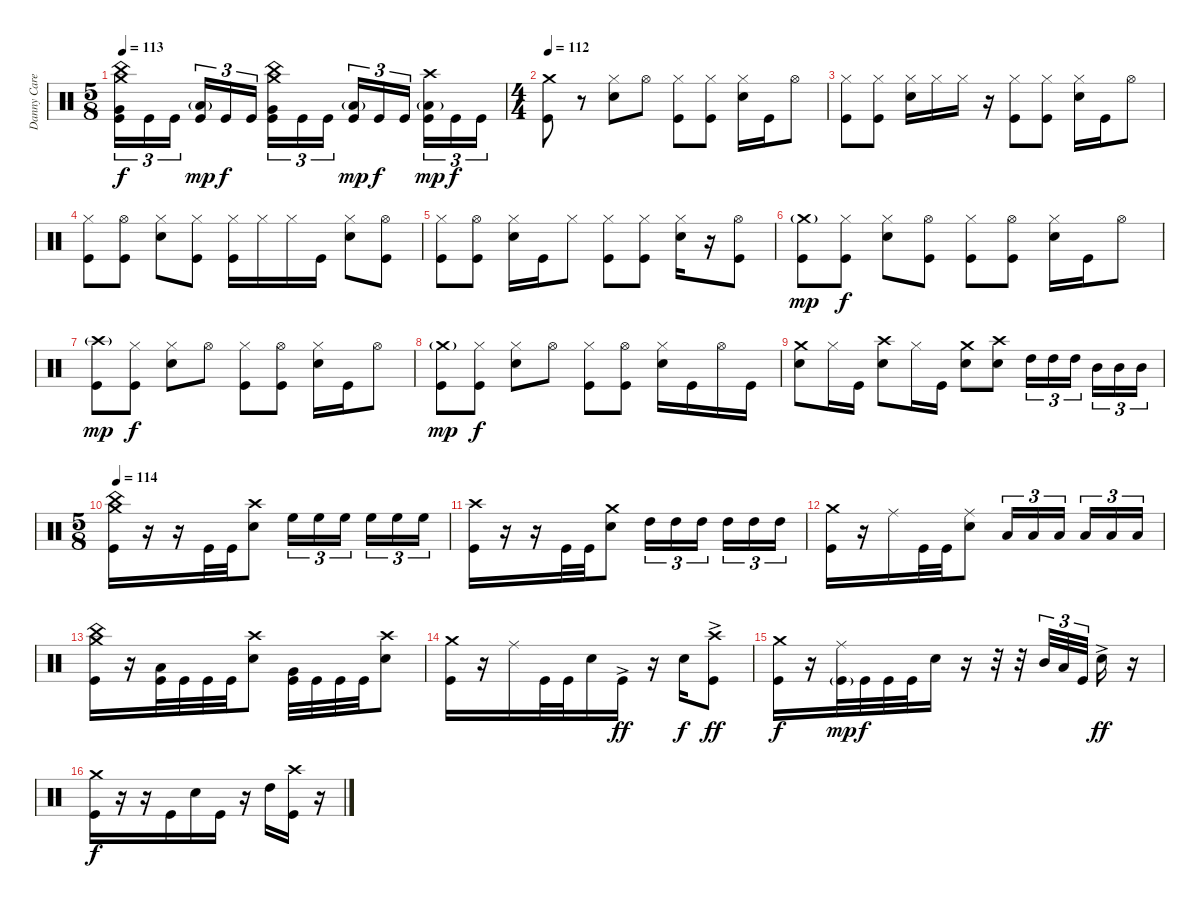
\track ("Danny Carey (drum)" "Danny Care") {instrument percussion}
\staff {score}
\articulation defaults
\ts (5 8)
\tempo 113
\clef neutral
\ks c
("Crash medium (hit)" "China (hit)" "Very Low Tom (hit)" "Kick (hit)").16{tu (3 2) dy f} "Kick (hit)".16{tu (3 2)} "Kick (hit)".16{tu (3 2)} ("Low Floor Tom (hit)"{g} "Kick (hit)").16{tu (3 2) dy mp} "Kick (hit)".16{tu (3 2) dy f} "Kick (hit)".16{tu (3 2)} ("Crash medium (hit)" "China (hit)" "Very Low Tom (hit)" "Kick (hit)").16{tu (3 2)} "Kick (hit)".16{tu (3 2)} "Kick (hit)".16{tu (3 2)} ("Low Floor Tom (hit)"{g} "Kick (hit)").16{tu (3 2) dy mp} "Kick (hit)".16{tu (3 2) dy f} "Kick (hit)".16{tu (3 2)} ("Crash high (hit)" "Low Floor Tom (hit)"{g} "Kick (hit)").16{tu (3 2) dy mp} "Kick (hit)".16{tu (3 2) dy f} "Kick (hit)".16{tu (3 2)} |
\ts (4 4)
\tempo 112
("Crash medium (hit)" "Kick (hit)").8 r.8 ("Hi-Hat (closed)" "Snare (hit) 2").8 "Hi-Hat (open)".8 ("Hi-Hat (closed)" "Kick (hit)").8 ("Hi-Hat (closed)" "Kick (hit)").8 ("Hi-Hat (closed)" "Snare (hit) 2").16 "Kick (hit)".16 "Hi-Hat (open)".8 |
("Hi-Hat (closed)" "Kick (hit)").8 ("Hi-Hat (closed)" "Kick (hit)").8 ("Hi-Hat (closed)" "Snare (hit) 2").16 "Hi-Hat (closed)".16 "Hi-Hat (closed)".16 r.16 ("Hi-Hat (closed)" "Kick (hit)").8 ("Hi-Hat (closed)" "Kick (hit)").8 ("Hi-Hat (closed)" "Snare (hit) 2").16 "Kick (hit)".16 "Hi-Hat (open)".8 |
("Hi-Hat (closed)" "Kick (hit)").8 ("Hi-Hat (open)" "Kick (hit)").8 ("Hi-Hat (closed)" "Snare (hit) 2").8 ("Hi-Hat (closed)" "Kick (hit)").8 ("Hi-Hat (closed)" "Kick (hit)").16 "Hi-Hat (closed)".16 "Hi-Hat (closed)".16 "Kick (hit)".16 ("Hi-Hat (closed)" "Snare (hit) 2").8 ("Hi-Hat (open)" "Kick (hit)").8 |
("Hi-Hat (closed)" "Kick (hit)").8 ("Hi-Hat (open)" "Kick (hit)").8 ("Hi-Hat (closed)" "Snare (hit) 2").16 "Kick (hit)".16 "Hi-Hat (closed)".8 ("Hi-Hat (closed)" "Kick (hit)").8 ("Hi-Hat (closed)" "Kick (hit)").8 ("Hi-Hat (closed)" "Snare (hit) 2").16 r.16 ("Hi-Hat (open)" "Kick (hit)").8 |
("Crash medium (hit)"{g} "Kick (hit)").8{dy mp} ("Hi-Hat (closed)" "Kick (hit)").8{dy f} ("Hi-Hat (closed)" "Snare (hit) 2").8 ("Hi-Hat (open)" "Kick (hit)").8 ("Hi-Hat (closed)" "Kick (hit)").8 ("Hi-Hat (open)" "Kick (hit)").8 ("Hi-Hat (closed)" "Snare (hit) 2").16 "Kick (hit)".16 "Hi-Hat (open)".8 |
("Crash high (hit)"{g} "Kick (hit)").8{dy mp} ("Hi-Hat (closed)" "Kick (hit)").8{dy f} ("Hi-Hat (closed)" "Snare (hit) 2").8 "Hi-Hat (open)".8 ("Hi-Hat (closed)" "Kick (hit)").8 ("Hi-Hat (open)" "Kick (hit)").8 ("Hi-Hat (closed)" "Snare (hit) 2").16 "Kick (hit)".16 "Hi-Hat (open)".8 |
("Crash medium (hit)"{g} "Kick (hit)").8{dy mp} ("Hi-Hat (closed)" "Kick (hit)").8{dy f} ("Hi-Hat (closed)" "Snare (hit) 2").8 "Hi-Hat (open)".8 ("Hi-Hat (closed)" "Kick (hit)").8 ("Hi-Hat (open)" "Kick (hit)").8 ("Hi-Hat (closed)" "Snare (hit) 2").16 "Kick (hit)".16 "Hi-Hat (open)".16 "Kick (hit)".16 |
("Crash medium (hit)" "Snare (hit) 2").8 "Hi-Hat (closed)".16 "Kick (hit)".16 ("Crash high (hit)" "Snare (hit) 2").8 "Hi-Hat (closed)".16 "Kick (hit)".16 ("Crash medium (hit)" "Snare (hit) 2").8 ("Crash high (hit)" "Snare (hit) 2").8 "High Tom (hit)".16{tu (3 2)} "High Tom (hit)".16{tu (3 2)} "High Tom (hit)".16{tu (3 2) beam splitsecondary} "Mid Tom (hit)".16{tu (3 2)} "Mid Tom (hit)".16{tu (3 2)} "Mid Tom (hit)".16{tu (3 2)} |
\ts (5 8)
\tempo 114
("Crash medium (hit)" "China (hit)" "Kick (hit)").16 r.16 r.16 "Kick (hit)".32 "Kick (hit)".32 ("Crash high (hit)" "Snare (hit) 2").8 "High Floor Tom (hit)".16{tu (3 2)} "High Floor Tom (hit)".16{tu (3 2)} "High Floor Tom (hit)".16{tu (3 2)} "High Floor Tom (hit)".16{tu (3 2)} "High Floor Tom (hit)".16{tu (3 2)} "High Floor Tom (hit)".16{tu (3 2)} |
("Crash high (hit)" "Kick (hit)").16 r.16 r.16 "Kick (hit)".32 "Kick (hit)".32 ("Crash medium (hit)" "Snare (hit) 2").8 "High Tom (hit)".16{tu (3 2)} "High Tom (hit)".16{tu (3 2)} "High Tom (hit)".16{tu (3 2)} "High Tom (hit)".16{tu (3 2)} "High Tom (hit)".16{tu (3 2)} "High Tom (hit)".16{tu (3 2)} |
("Crash medium (hit)" "Kick (hit)").16 r.16 "Ride (middle)".16 "Kick (hit)".32 "Kick (hit)".32 ("Ride (middle)" "Snare (hit) 2").8 "Low Tom (hit)".16{tu (3 2)} "Low Tom (hit)".16{tu (3 2)} "Low Tom (hit)".16{tu (3 2)} "Low Tom (hit)".16{tu (3 2)} "Low Tom (hit)".16{tu (3 2)} "Low Tom (hit)".16{tu (3 2)} |
("Crash medium (hit)" "China (hit)" "Kick (hit)").16 r.16 ("Low Floor Tom (hit)" "Kick (hit)").32 "Kick (hit)".32 "Kick (hit)".32 "Kick (hit)".32 ("Crash high (hit)" "Snare (hit) 2").8 ("Very Low Tom (hit)" "Kick (hit)").32 "Kick (hit)".32 "Kick (hit)".32 "Kick (hit)".32 ("Crash high (hit)" "Snare (hit) 2").8 |
("Crash medium (hit)" "Kick (hit)").16 r.16 "Ride (middle)".16 "Kick (hit)".32 "Kick (hit)".32 "Snare (hit) 2".16 "Kick (hit)"{ac}.16{dy ff} r.16 "Snare (hit) 2".16{dy f} ("Crash high (hit)" "Kick (hit)"{ac}).8{dy ff} |
("Crash medium (hit)" "Kick (hit)").16{dy f} r.16 ("Ride (middle)" "Kick (hit)"{g}).32{dy mp} "Kick (hit)".32{dy f} "Kick (hit)".32 "Kick (hit)".32 "Snare (hit) 2".16 r.16 r.32 r.32 "Mid Tom (hit)".32{tu (3 2)} "Low Tom (hit)".32{tu (3 2)} "Kick (hit)".32{tu (3 2)} "Snare (hit) 2"{ac}.16{dy ff} r.16 |
("Crash medium (hit)" "Kick (hit)").16{dy f} r.16 r.16 "Kick (hit)".16 "Snare (hit) 2".16 "Kick (hit)".16 r.16 "High Tom (hit)".16 ("Crash high (hit)" "Kick (hit)").16 r.16
